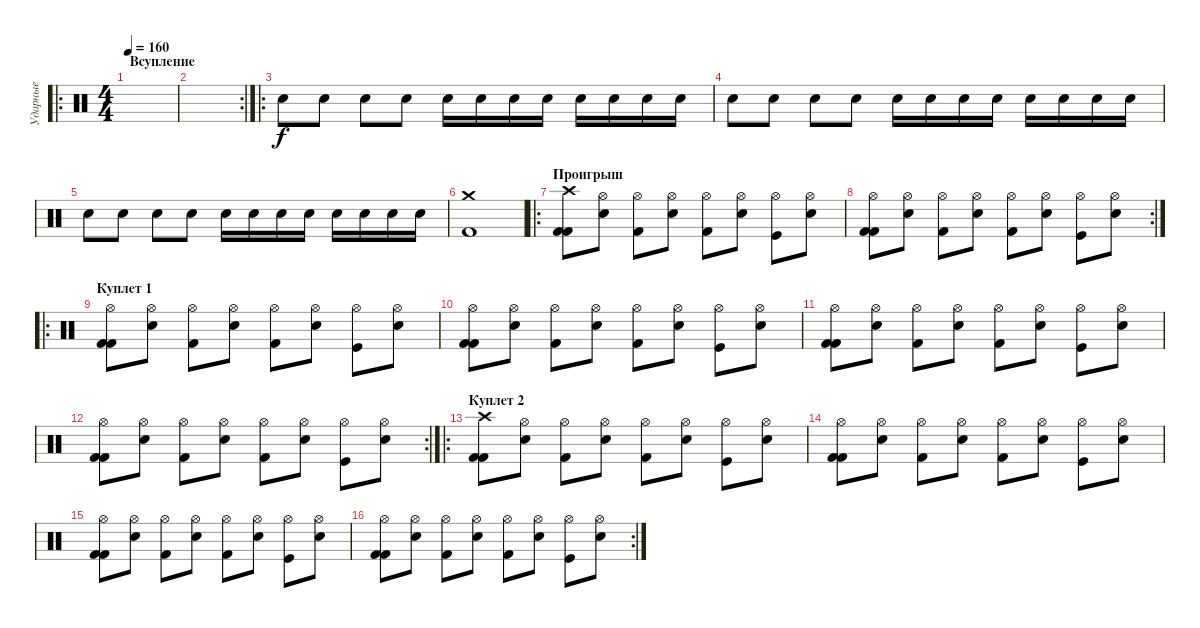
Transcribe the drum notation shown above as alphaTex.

\track ("Ударные" "Ударные") {instrument percussion}
\staff {score}
\articulation defaults
\ro
\ts (4 4)
\section ("" "Всупление")
\tempo 160
\clef neutral
\ks c
|
\rc 2
|
\ro "Electric Snare (hit)".8 "Electric Snare (hit)".8 "Electric Snare (hit)".8 "Electric Snare (hit)".8 "Electric Snare (hit)".16 "Electric Snare (hit)".16 "Electric Snare (hit)".16 "Electric Snare (hit)".16 "Electric Snare (hit)".16 "Electric Snare (hit)".16 "Electric Snare (hit)".16 "Electric Snare (hit)".16
|
"Electric Snare (hit)".8 "Electric Snare (hit)".8 "Electric Snare (hit)".8 "Electric Snare (hit)".8 "Electric Snare (hit)".16 "Electric Snare (hit)".16 "Electric Snare (hit)".16 "Electric Snare (hit)".16 "Electric Snare (hit)".16 "Electric Snare (hit)".16 "Electric Snare (hit)".16 "Electric Snare (hit)".16 |
"Electric Snare (hit)".8 "Electric Snare (hit)".8 "Electric Snare (hit)".8 "Electric Snare (hit)".8 "Electric Snare (hit)".16 "Electric Snare (hit)".16 "Electric Snare (hit)".16 "Electric Snare (hit)".16 "Electric Snare (hit)".16 "Electric Snare (hit)".16 "Electric Snare (hit)".16 "Electric Snare (hit)".16 |
("Crash medium (hit)" "Kick (hit) 2").1 |
\ro
\section ("" "Проигрыш")
("Crash high (hit)" "Kick (hit) 2" "Kick (hit) 2").8 ("Hi-Hat (open)" "Electric Snare (hit)").8 ("Hi-Hat (open)" "Kick (hit) 2").8 ("Hi-Hat (open)" "Electric Snare (hit)").8 ("Hi-Hat (open)" "Kick (hit) 2").8 ("Hi-Hat (open)" "Electric Snare (hit)").8 ("Hi-Hat (open)" "Kick (hit)").8 ("Electric Snare (hit)" "Hi-Hat (open)").8 |
\rc 2
("Hi-Hat (open)" "Kick (hit) 2" "Kick (hit) 2").8 ("Hi-Hat (open)" "Electric Snare (hit)").8 ("Hi-Hat (open)" "Kick (hit) 2").8 ("Hi-Hat (open)" "Electric Snare (hit)").8 ("Hi-Hat (open)" "Kick (hit) 2").8 ("Hi-Hat (open)" "Electric Snare (hit)").8 ("Hi-Hat (open)" "Kick (hit)").8 ("Electric Snare (hit)" "Hi-Hat (open)").8 |
\ro
\section ("" "Куплет 1")
("Hi-Hat (open)" "Kick (hit) 2" "Kick (hit) 2").8 ("Hi-Hat (open)" "Electric Snare (hit)").8 ("Hi-Hat (open)" "Kick (hit) 2").8 ("Hi-Hat (open)" "Electric Snare (hit)").8 ("Hi-Hat (open)" "Kick (hit) 2").8 ("Hi-Hat (open)" "Electric Snare (hit)").8 ("Hi-Hat (open)" "Kick (hit)").8 ("Electric Snare (hit)" "Hi-Hat (open)").8 |
("Hi-Hat (open)" "Kick (hit) 2" "Kick (hit) 2").8 ("Hi-Hat (open)" "Electric Snare (hit)").8 ("Hi-Hat (open)" "Kick (hit) 2").8 ("Hi-Hat (open)" "Electric Snare (hit)").8 ("Hi-Hat (open)" "Kick (hit) 2").8 ("Hi-Hat (open)" "Electric Snare (hit)").8 ("Hi-Hat (open)" "Kick (hit)").8 ("Electric Snare (hit)" "Hi-Hat (open)").8 |
("Hi-Hat (open)" "Kick (hit) 2" "Kick (hit) 2").8 ("Hi-Hat (open)" "Electric Snare (hit)").8 ("Hi-Hat (open)" "Kick (hit) 2").8 ("Hi-Hat (open)" "Electric Snare (hit)").8 ("Hi-Hat (open)" "Kick (hit) 2").8 ("Hi-Hat (open)" "Electric Snare (hit)").8 ("Hi-Hat (open)" "Kick (hit)").8 ("Electric Snare (hit)" "Hi-Hat (open)").8 |
\rc 2
("Hi-Hat (open)" "Kick (hit) 2" "Kick (hit) 2").8 ("Hi-Hat (open)" "Electric Snare (hit)").8 ("Hi-Hat (open)" "Kick (hit) 2").8 ("Hi-Hat (open)" "Electric Snare (hit)").8 ("Hi-Hat (open)" "Kick (hit) 2").8 ("Hi-Hat (open)" "Electric Snare (hit)").8 ("Hi-Hat (open)" "Kick (hit)").8 ("Electric Snare (hit)" "Hi-Hat (open)").8 |
\ro
\section ("" "Куплет 2")
("Crash high (hit)" "Kick (hit) 2" "Kick (hit) 2").8 ("Hi-Hat (open)" "Electric Snare (hit)").8 ("Hi-Hat (open)" "Kick (hit) 2").8 ("Hi-Hat (open)" "Electric Snare (hit)").8 ("Hi-Hat (open)" "Kick (hit) 2").8 ("Hi-Hat (open)" "Electric Snare (hit)").8 ("Hi-Hat (open)" "Kick (hit)").8 ("Electric Snare (hit)" "Hi-Hat (open)").8 |
("Hi-Hat (open)" "Kick (hit) 2" "Kick (hit) 2").8 ("Hi-Hat (open)" "Electric Snare (hit)").8 ("Hi-Hat (open)" "Kick (hit) 2").8 ("Hi-Hat (open)" "Electric Snare (hit)").8 ("Hi-Hat (open)" "Kick (hit) 2").8 ("Hi-Hat (open)" "Electric Snare (hit)").8 ("Hi-Hat (open)" "Kick (hit)").8 ("Electric Snare (hit)" "Hi-Hat (open)").8 |
("Hi-Hat (open)" "Kick (hit) 2" "Kick (hit) 2").8 ("Hi-Hat (open)" "Electric Snare (hit)").8 ("Hi-Hat (open)" "Kick (hit) 2").8 ("Hi-Hat (open)" "Electric Snare (hit)").8 ("Hi-Hat (open)" "Kick (hit) 2").8 ("Hi-Hat (open)" "Electric Snare (hit)").8 ("Hi-Hat (open)" "Kick (hit)").8 ("Electric Snare (hit)" "Hi-Hat (open)").8 |
\rc 2
("Hi-Hat (open)" "Kick (hit) 2" "Kick (hit) 2").8 ("Hi-Hat (open)" "Electric Snare (hit)").8 ("Hi-Hat (open)" "Kick (hit) 2").8 ("Hi-Hat (open)" "Electric Snare (hit)").8 ("Hi-Hat (open)" "Kick (hit) 2").8 ("Hi-Hat (open)" "Electric Snare (hit)").8 ("Hi-Hat (open)" "Kick (hit)").8 ("Electric Snare (hit)" "Hi-Hat (open)").8
